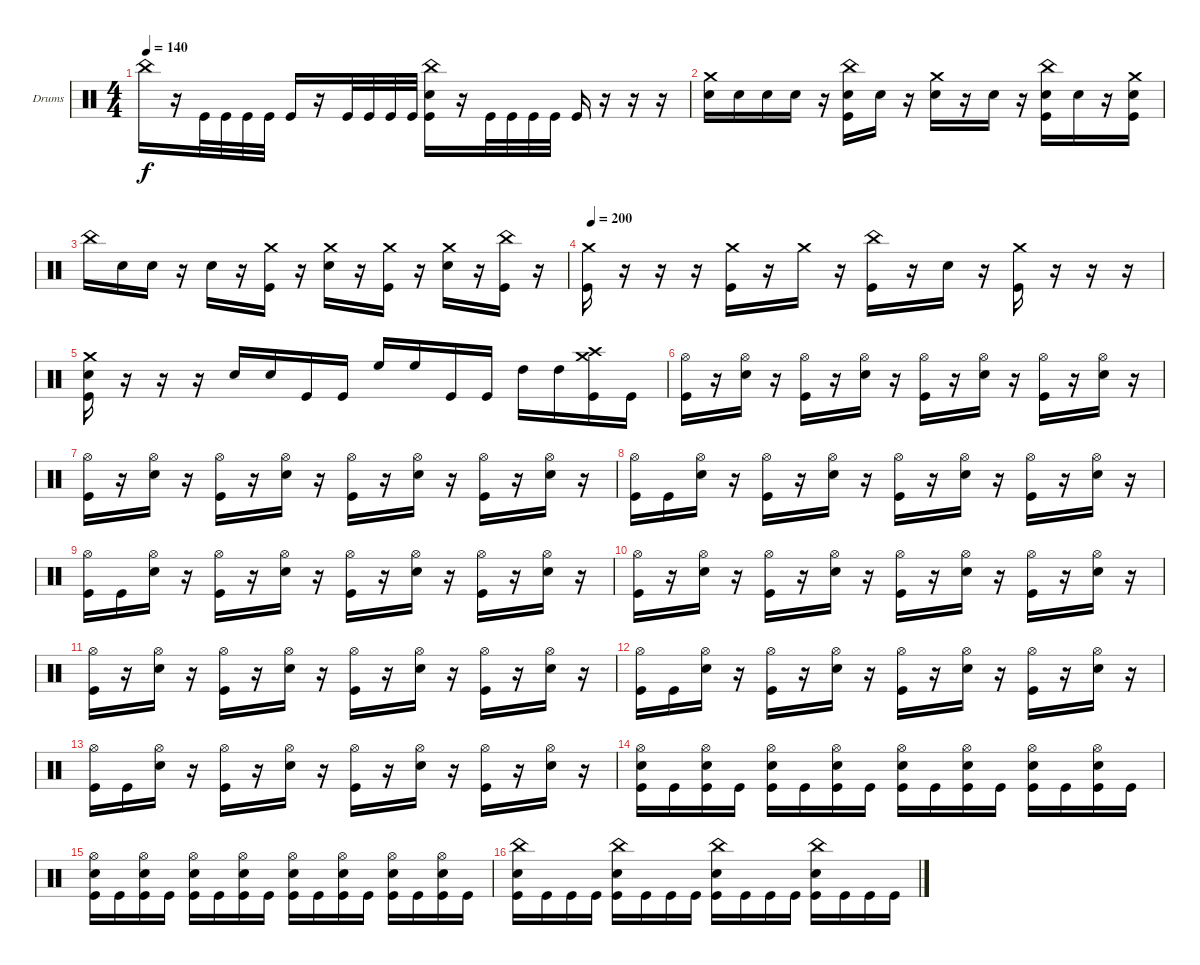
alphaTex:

\defaultSystemsLayout 4
\bracketExtendMode groupsimilarinstruments
\firstSystemTrackNameOrientation horizontal
\otherSystemsTrackNameOrientation horizontal
\track ("Drumkit" "Drums") {instrument percussion}
\staff {score}
\articulation defaults
\ts (4 4)
\tempo 140
\clef neutral
\ks c "China (hit)".16{dy f}
r.16 "Kick (hit)".32 "Kick (hit)".32 "Kick (hit)".32 "Kick (hit)".32 "Kick (hit)".16 r.16 "Kick (hit)".32 "Kick (hit)".32 "Kick (hit)".32 "Kick (hit)".32 ("Kick (hit)" "Snare (hit) 2" "China (hit)").16 r.16 "Kick (hit)".32 "Kick (hit)".32 "Kick (hit)".32 "Kick (hit)".32 "Kick (hit)".16 r.16 r.16 r.16 |
("Snare (hit) 2" "Crash medium (hit)").16 "Snare (hit) 2".16 "Snare (hit) 2".16 "Snare (hit) 2".16 r.16 ("Snare (hit) 2" "Kick (hit)" "China (hit)").16 "Snare (hit) 2".16 r.16 ("Snare (hit) 2" "Crash medium (hit)").16 r.16 "Snare (hit) 2".16 r.16 ("Snare (hit) 2" "Kick (hit)" "China (hit)").16 "Snare (hit) 2".16 r.16 ("Snare (hit) 2" "Kick (hit)" "Crash medium (hit)").16 |
"China (hit)".16 "Snare (hit) 2".16 "Snare (hit) 2".16 r.16 "Snare (hit) 2".16 r.16 ("Kick (hit)" "Crash medium (hit)").16 r.16 ("Crash medium (hit)" "Snare (hit) 2").16 r.16 ("Crash medium (hit)" "Kick (hit)").16 r.16 ("Snare (hit) 2" "Crash medium (hit)").16 r.16 ("China (hit)" "Kick (hit)").16 r.16 |
\tempo (200 0.00625)
("Crash medium (hit)" "Kick (hit)").16 r.16 r.16 r.16 ("Kick (hit)" "Crash medium (hit)").16 r.16 "Crash medium (hit)".16 r.16 ("China (hit)" "Kick (hit)").16 r.16 "Snare (hit) 2".16 r.16 ("Crash medium (hit)" "Kick (hit)").16 r.16 r.16 r.16 |
("Snare (hit) 2" "Crash medium (hit)" "Kick (hit)").16 r.16 r.16 r.16 "Snare (hit) 2".16 "Snare (hit) 2".16 "Kick (hit)".16 "Kick (hit)".16 "High Floor Tom (hit)".16 "High Floor Tom (hit)".16 "Kick (hit)".16 "Kick (hit)".16 "High Tom (hit)".16 "High Tom (hit)".16 ("Crash high (hit)" "Crash medium (hit)" "Kick (hit)").16 "Kick (hit)".16 |
("Kick (hit)" "Hi-Hat (open)").16 r.16 ("Snare (hit) 2" "Hi-Hat (open)").16 r.16 ("Kick (hit)" "Hi-Hat (open)").16 r.16 ("Snare (hit) 2" "Hi-Hat (open)").16 r.16 ("Kick (hit)" "Hi-Hat (open)").16 r.16 ("Snare (hit) 2" "Hi-Hat (open)").16 r.16 ("Kick (hit)" "Hi-Hat (open)").16 r.16 ("Snare (hit) 2" "Hi-Hat (open)").16 r.16 |
("Kick (hit)" "Hi-Hat (open)").16 r.16 ("Snare (hit) 2" "Hi-Hat (open)").16 r.16 ("Kick (hit)" "Hi-Hat (open)").16 r.16 ("Snare (hit) 2" "Hi-Hat (open)").16 r.16 ("Kick (hit)" "Hi-Hat (open)").16 r.16 ("Snare (hit) 2" "Hi-Hat (open)").16 r.16 ("Kick (hit)" "Hi-Hat (open)").16 r.16 ("Snare (hit) 2" "Hi-Hat (open)").16 r.16 |
("Kick (hit)" "Hi-Hat (open)").16 "Kick (hit)".16 ("Snare (hit) 2" "Hi-Hat (open)").16 r.16 ("Kick (hit)" "Hi-Hat (open)").16 r.16 ("Snare (hit) 2" "Hi-Hat (open)").16 r.16 ("Kick (hit)" "Hi-Hat (open)").16 r.16 ("Snare (hit) 2" "Hi-Hat (open)").16 r.16 ("Kick (hit)" "Hi-Hat (open)").16 r.16 ("Snare (hit) 2" "Hi-Hat (open)").16 r.16 |
("Kick (hit)" "Hi-Hat (open)").16 "Kick (hit)".16 ("Snare (hit) 2" "Hi-Hat (open)").16 r.16 ("Kick (hit)" "Hi-Hat (open)").16 r.16 ("Snare (hit) 2" "Hi-Hat (open)").16 r.16 ("Kick (hit)" "Hi-Hat (open)").16 r.16 ("Snare (hit) 2" "Hi-Hat (open)").16 r.16 ("Kick (hit)" "Hi-Hat (open)").16 r.16 ("Snare (hit) 2" "Hi-Hat (open)").16 r.16 |
("Kick (hit)" "Hi-Hat (open)").16 r.16 ("Snare (hit) 2" "Hi-Hat (open)").16 r.16 ("Kick (hit)" "Hi-Hat (open)").16 r.16 ("Snare (hit) 2" "Hi-Hat (open)").16 r.16 ("Kick (hit)" "Hi-Hat (open)").16 r.16 ("Snare (hit) 2" "Hi-Hat (open)").16 r.16 ("Kick (hit)" "Hi-Hat (open)").16 r.16 ("Snare (hit) 2" "Hi-Hat (open)").16 r.16 |
("Kick (hit)" "Hi-Hat (open)").16 r.16 ("Snare (hit) 2" "Hi-Hat (open)").16 r.16 ("Kick (hit)" "Hi-Hat (open)").16 r.16 ("Snare (hit) 2" "Hi-Hat (open)").16 r.16 ("Kick (hit)" "Hi-Hat (open)").16 r.16 ("Snare (hit) 2" "Hi-Hat (open)").16 r.16 ("Kick (hit)" "Hi-Hat (open)").16 r.16 ("Snare (hit) 2" "Hi-Hat (open)").16 r.16 |
("Kick (hit)" "Hi-Hat (open)").16 "Kick (hit)".16 ("Snare (hit) 2" "Hi-Hat (open)").16 r.16 ("Kick (hit)" "Hi-Hat (open)").16 r.16 ("Snare (hit) 2" "Hi-Hat (open)").16 r.16 ("Kick (hit)" "Hi-Hat (open)").16 r.16 ("Snare (hit) 2" "Hi-Hat (open)").16 r.16 ("Kick (hit)" "Hi-Hat (open)").16 r.16 ("Snare (hit) 2" "Hi-Hat (open)").16 r.16 |
("Kick (hit)" "Hi-Hat (open)").16 "Kick (hit)".16 ("Snare (hit) 2" "Hi-Hat (open)").16 r.16 ("Kick (hit)" "Hi-Hat (open)").16 r.16 ("Snare (hit) 2" "Hi-Hat (open)").16 r.16 ("Kick (hit)" "Hi-Hat (open)").16 r.16 ("Snare (hit) 2" "Hi-Hat (open)").16 r.16 ("Kick (hit)" "Hi-Hat (open)").16 r.16 ("Snare (hit) 2" "Hi-Hat (open)").16 r.16 |
("Kick (hit)" "Snare (hit) 2" "Hi-Hat (open)").16 "Kick (hit)".16 ("Kick (hit)" "Snare (hit) 2" "Hi-Hat (open)").16 "Kick (hit)".16 ("Kick (hit)" "Snare (hit) 2" "Hi-Hat (open)").16 "Kick (hit)".16 ("Kick (hit)" "Snare (hit) 2" "Hi-Hat (open)").16 "Kick (hit)".16 ("Kick (hit)" "Snare (hit) 2" "Hi-Hat (open)").16 "Kick (hit)".16 ("Kick (hit)" "Snare (hit) 2" "Hi-Hat (open)").16 "Kick (hit)".16 ("Kick (hit)" "Snare (hit) 2" "Hi-Hat (open)").16 "Kick (hit)".16 ("Kick (hit)" "Snare (hit) 2" "Hi-Hat (open)").16 "Kick (hit)".16 |
("Kick (hit)" "Snare (hit) 2" "Hi-Hat (open)").16 "Kick (hit)".16 ("Kick (hit)" "Snare (hit) 2" "Hi-Hat (open)").16 "Kick (hit)".16 ("Kick (hit)" "Snare (hit) 2" "Hi-Hat (open)").16 "Kick (hit)".16 ("Kick (hit)" "Snare (hit) 2" "Hi-Hat (open)").16 "Kick (hit)".16 ("Kick (hit)" "Snare (hit) 2" "Hi-Hat (open)").16 "Kick (hit)".16 ("Kick (hit)" "Snare (hit) 2" "Hi-Hat (open)").16 "Kick (hit)".16 ("Kick (hit)" "Snare (hit) 2" "Hi-Hat (open)").16 "Kick (hit)".16 ("Kick (hit)" "Snare (hit) 2" "Hi-Hat (open)").16 "Kick (hit)".16 |
("Kick (hit)" "Snare (hit) 2" "China (hit)").16 "Kick (hit)".16 "Kick (hit)".16 "Kick (hit)".16 ("Kick (hit)" "Snare (hit) 2" "China (hit)").16 "Kick (hit)".16 "Kick (hit)".16 "Kick (hit)".16 ("Kick (hit)" "Snare (hit) 2" "China (hit)").16 "Kick (hit)".16 "Kick (hit)".16 "Kick (hit)".16 ("Kick (hit)" "Snare (hit) 2" "China (hit)").16 "Kick (hit)".16 "Kick (hit)".16 "Kick (hit)".16
